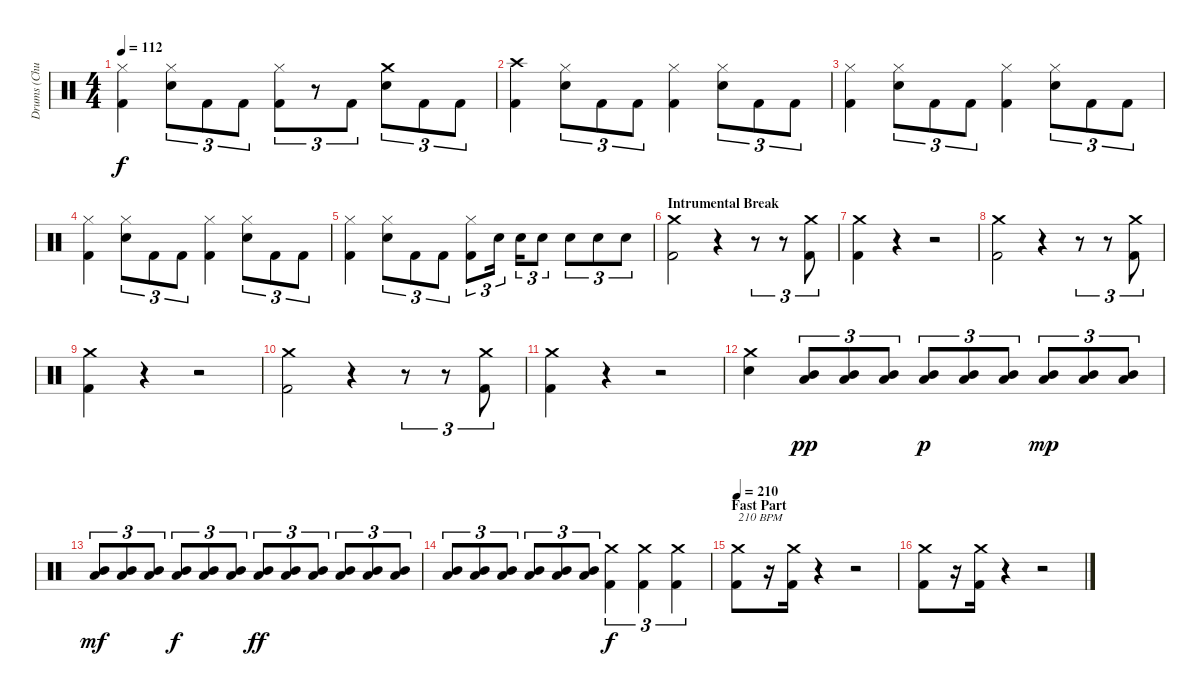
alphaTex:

\track ("Drums (Chuck Behler)" "Drums (Chu") {instrument percussion}
\staff {score}
\articulation defaults
\ts (4 4)
\tempo 112
\clef neutral
\ks c
("Hi-Hat (closed)" "Kick (hit) 2").4{dy f} ("Hi-Hat (closed)" "Snare (hit) 2").8{tu (3 2)} "Kick (hit) 2".8{tu (3 2)} "Kick (hit) 2".8{tu (3 2)} ("Hi-Hat (closed)" "Kick (hit) 2").8{tu (3 2)} r.8{tu (3 2)} "Kick (hit) 2".8{tu (3 2)} ("Crash medium (hit)" "Snare (hit) 2").8{tu (3 2)} "Kick (hit) 2".8{tu (3 2)} "Kick (hit) 2".8{tu (3 2)} |
("Crash high (hit)" "Kick (hit) 2").4 ("Hi-Hat (closed)" "Snare (hit) 2").8{tu (3 2)} "Kick (hit) 2".8{tu (3 2)} "Kick (hit) 2".8{tu (3 2)} ("Hi-Hat (closed)" "Kick (hit) 2").4 ("Hi-Hat (closed)" "Snare (hit) 2").8{tu (3 2)} "Kick (hit) 2".8{tu (3 2)} "Kick (hit) 2".8{tu (3 2)} |
("Hi-Hat (closed)" "Kick (hit) 2").4 ("Hi-Hat (closed)" "Snare (hit) 2").8{tu (3 2)} "Kick (hit) 2".8{tu (3 2)} "Kick (hit) 2".8{tu (3 2)} ("Hi-Hat (closed)" "Kick (hit) 2").4 ("Hi-Hat (closed)" "Snare (hit) 2").8{tu (3 2)} "Kick (hit) 2".8{tu (3 2)} "Kick (hit) 2".8{tu (3 2)} |
("Hi-Hat (closed)" "Kick (hit) 2").4 ("Hi-Hat (closed)" "Snare (hit) 2").8{tu (3 2)} "Kick (hit) 2".8{tu (3 2)} "Kick (hit) 2".8{tu (3 2)} ("Hi-Hat (closed)" "Kick (hit) 2").4 ("Hi-Hat (closed)" "Snare (hit) 2").8{tu (3 2)} "Kick (hit) 2".8{tu (3 2)} "Kick (hit) 2".8{tu (3 2)} |
("Hi-Hat (closed)" "Kick (hit) 2").4 ("Hi-Hat (closed)" "Snare (hit) 2").8{tu (3 2)} "Kick (hit) 2".8{tu (3 2)} "Kick (hit) 2".8{tu (3 2)} ("Hi-Hat (closed)" "Kick (hit) 2").8{tu (3 2)} "Snare (hit) 2".16{tu (3 2)} "Snare (hit) 2".16{tu (3 2)} "Snare (hit) 2".8{tu (3 2)} "Snare (hit) 2".8{tu (3 2)} "Snare (hit) 2".8{tu (3 2)} "Snare (hit) 2".8{tu (3 2)} |
\section ("" "Intrumental Break")
("Crash medium (hit)" "Kick (hit) 2").2 r.4 r.8{tu (3 2)} r.8{tu (3 2)} ("Crash medium (hit)" "Kick (hit) 2").8{tu (3 2)} |
("Crash medium (hit)" "Kick (hit) 2").4 r.4 r.2 |
("Crash medium (hit)" "Kick (hit) 2").2 r.4 r.8{tu (3 2)} r.8{tu (3 2)} ("Crash medium (hit)" "Kick (hit) 2").8{tu (3 2)} |
("Crash medium (hit)" "Kick (hit) 2").4 r.4 r.2 |
("Crash medium (hit)" "Kick (hit) 2").2 r.4 r.8{tu (3 2)} r.8{tu (3 2)} ("Crash medium (hit)" "Kick (hit) 2").8{tu (3 2)} |
("Crash medium (hit)" "Kick (hit) 2").4 r.4 r.2 |
("Crash medium (hit)" "Snare (hit) 2").4 ("Mid Tom (hit)" "Low Tom (hit)").8{tu (3 2) dy pp} ("Mid Tom (hit)" "Low Tom (hit)").8{tu (3 2)} ("Mid Tom (hit)" "Low Tom (hit)").8{tu (3 2)} ("Mid Tom (hit)" "Low Tom (hit)").8{tu (3 2) dy p} ("Mid Tom (hit)" "Low Tom (hit)").8{tu (3 2)} ("Mid Tom (hit)" "Low Tom (hit)").8{tu (3 2)} ("Mid Tom (hit)" "Low Tom (hit)").8{tu (3 2) dy mp} ("Mid Tom (hit)" "Low Tom (hit)").8{tu (3 2)} ("Mid Tom (hit)" "Low Tom (hit)").8{tu (3 2)} |
("Mid Tom (hit)" "Low Tom (hit)").8{tu (3 2) dy mf} ("Mid Tom (hit)" "Low Tom (hit)").8{tu (3 2)} ("Mid Tom (hit)" "Low Tom (hit)").8{tu (3 2)} ("Mid Tom (hit)" "Low Tom (hit)").8{tu (3 2) dy f} ("Mid Tom (hit)" "Low Tom (hit)").8{tu (3 2)} ("Mid Tom (hit)" "Low Tom (hit)").8{tu (3 2)} ("Mid Tom (hit)" "Low Tom (hit)").8{tu (3 2) dy ff} ("Mid Tom (hit)" "Low Tom (hit)").8{tu (3 2)} ("Mid Tom (hit)" "Low Tom (hit)").8{tu (3 2)} ("Mid Tom (hit)" "Low Tom (hit)").8{tu (3 2)} ("Mid Tom (hit)" "Low Tom (hit)").8{tu (3 2)} ("Mid Tom (hit)" "Low Tom (hit)").8{tu (3 2)} |
("Mid Tom (hit)" "Low Tom (hit)").8{tu (3 2)} ("Mid Tom (hit)" "Low Tom (hit)").8{tu (3 2)} ("Mid Tom (hit)" "Low Tom (hit)").8{tu (3 2)} ("Mid Tom (hit)" "Low Tom (hit)").8{tu (3 2)} ("Mid Tom (hit)" "Low Tom (hit)").8{tu (3 2)} ("Mid Tom (hit)" "Low Tom (hit)").8{tu (3 2)} ("Crash medium (hit)" "Kick (hit) 2").4{tu (3 2) dy f} ("Crash medium (hit)" "Kick (hit) 2").4{tu (3 2)} ("Crash medium (hit)" "Kick (hit) 2").4{tu (3 2)} |
\section ("" "Fast Part")
\tempo 210
("Crash medium (hit)" "Kick (hit) 2").8{txt "210 BPM"} r.16 ("Crash medium (hit)" "Kick (hit) 2").16 r.4 r.2 |
("Crash medium (hit)" "Kick (hit) 2").8 r.16 ("Crash medium (hit)" "Kick (hit) 2").16 r.4 r.2
